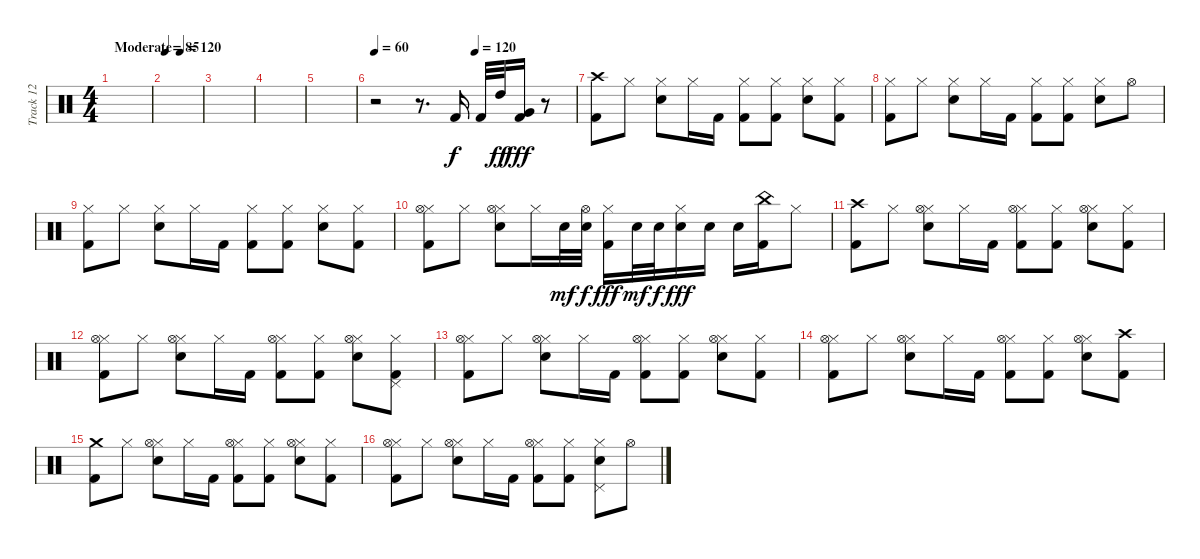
\track ("Track 12" "Track 12") {instrument percussion}
\staff {score}
\articulation defaults
\ts (4 4)
\tempo (120 "Moderate")
\clef neutral
\ks c
|
\tempo 85
|
|
|
|
\tempo 60
\tempo (120 0.5)
r.2 r.8{d} "Kick (hit) 2".16 "Kick (hit) 2".32 "High Tom (hit)".32{dy ff} ("Very Low Tom (hit)" "Kick (hit) 2").16{dy fff} r.8 |
("Crash high (hit)" "Kick (hit) 2").8 "Hi-Hat (closed)".8 ("Hi-Hat (closed)" "Snare (hit) 2").8 "Hi-Hat (closed)".16 "Kick (hit) 2".16 ("Hi-Hat (closed)" "Kick (hit) 2").8 ("Hi-Hat (closed)" "Kick (hit) 2").8 ("Hi-Hat (closed)" "Snare (hit) 2").8 ("Hi-Hat (closed)" "Kick (hit) 2").8 |
("Hi-Hat (closed)" "Kick (hit) 2").8 "Hi-Hat (closed)".8 ("Hi-Hat (closed)" "Snare (hit) 2").8 "Hi-Hat (closed)".16 "Kick (hit) 2".16 ("Hi-Hat (closed)" "Kick (hit) 2").8 ("Hi-Hat (closed)" "Kick (hit) 2").8 ("Hi-Hat (closed)" "Snare (hit) 2").8 "Hi-Hat (open)".8 |
("Hi-Hat (closed)" "Kick (hit) 2").8 "Hi-Hat (closed)".8 ("Hi-Hat (closed)" "Snare (hit) 2").8 "Hi-Hat (closed)".16 "Kick (hit) 2".16 ("Hi-Hat (closed)" "Kick (hit) 2").8 ("Hi-Hat (closed)" "Kick (hit) 2").8 ("Hi-Hat (closed)" "Snare (hit) 2").8 ("Hi-Hat (closed)" "Kick (hit) 2").8 |
("Hi-Hat (closed)" "Hi-Hat (open)" "Kick (hit) 2").8 "Hi-Hat (closed)".8 ("Hi-Hat (closed)" "Hi-Hat (open)" "Snare (hit) 2").8 "Hi-Hat (closed)".16 "Snare (hit) 2".32{dy mf} ("Hi-Hat (open)" "Snare (hit) 2").32{dy f} ("Hi-Hat (closed)" "Kick (hit) 2").16{dy fff} "Snare (hit) 2".32{dy mf} "Snare (hit) 2".32{dy f} ("Hi-Hat (closed)" "Snare (hit) 2").16{dy fff} "Snare (hit) 2".16 "Snare (hit) 2".16 ("China (hit)" "Kick (hit) 2").16 "Hi-Hat (closed)".8 |
("Crash high (hit)" "Kick (hit) 2").8 "Hi-Hat (closed)".8 ("Hi-Hat (closed)" "Hi-Hat (open)" "Snare (hit) 2").8 "Hi-Hat (closed)".16 "Kick (hit) 2".16 ("Hi-Hat (closed)" "Hi-Hat (open)" "Kick (hit) 2").8 ("Hi-Hat (closed)" "Kick (hit) 2").8 ("Hi-Hat (closed)" "Hi-Hat (open)" "Snare (hit) 2").8 ("Hi-Hat (closed)" "Kick (hit) 2").8 |
("Hi-Hat (closed)" "Hi-Hat (open)" "Kick (hit) 2").8 "Hi-Hat (closed)".8 ("Hi-Hat (closed)" "Hi-Hat (open)" "Snare (hit) 2").8 "Hi-Hat (closed)".16 "Kick (hit) 2".16 ("Hi-Hat (closed)" "Hi-Hat (open)" "Kick (hit) 2").8 ("Hi-Hat (closed)" "Kick (hit) 2").8 ("Hi-Hat (closed)" "Hi-Hat (open)" "Snare (hit) 2").8 ("Hi-Hat (closed)" "Pedal Hi-Hat (hit)" "Kick (hit) 2").8 |
("Hi-Hat (closed)" "Hi-Hat (open)" "Kick (hit) 2").8 "Hi-Hat (closed)".8 ("Hi-Hat (closed)" "Hi-Hat (open)" "Snare (hit) 2").8 "Hi-Hat (closed)".16 "Kick (hit) 2".16 ("Hi-Hat (closed)" "Hi-Hat (open)" "Kick (hit) 2").8 ("Hi-Hat (closed)" "Kick (hit) 2").8 ("Hi-Hat (closed)" "Hi-Hat (open)" "Snare (hit) 2").8 ("Hi-Hat (closed)" "Kick (hit) 2").8 |
("Hi-Hat (closed)" "Hi-Hat (open)" "Kick (hit) 2").8 "Hi-Hat (closed)".8 ("Hi-Hat (closed)" "Hi-Hat (open)" "Snare (hit) 2").8 "Hi-Hat (closed)".16 "Kick (hit) 2".16 ("Hi-Hat (closed)" "Hi-Hat (open)" "Kick (hit) 2").8 ("Hi-Hat (closed)" "Kick (hit) 2").8 ("Hi-Hat (closed)" "Hi-Hat (open)" "Snare (hit) 2").8 ("Crash high (hit)" "Kick (hit) 2").8 |
("Crash medium (hit)" "Kick (hit) 2").8 "Hi-Hat (closed)".8 ("Hi-Hat (closed)" "Hi-Hat (open)" "Snare (hit) 2").8 "Hi-Hat (closed)".16 "Kick (hit) 2".16 ("Hi-Hat (closed)" "Hi-Hat (open)" "Kick (hit) 2").8 ("Hi-Hat (closed)" "Kick (hit) 2").8 ("Hi-Hat (closed)" "Hi-Hat (open)" "Snare (hit) 2").8 ("Hi-Hat (closed)" "Kick (hit) 2").8 |
("Hi-Hat (closed)" "Hi-Hat (open)" "Kick (hit) 2").8 "Hi-Hat (closed)".8 ("Hi-Hat (closed)" "Hi-Hat (open)" "Snare (hit) 2").8 "Hi-Hat (closed)".16 "Kick (hit) 2".16 ("Hi-Hat (closed)" "Hi-Hat (open)" "Kick (hit) 2").8 ("Hi-Hat (closed)" "Kick (hit) 2").8 ("Hi-Hat (closed)" "Pedal Hi-Hat (hit)" "Snare (hit) 2").8 "Hi-Hat (open)".8
